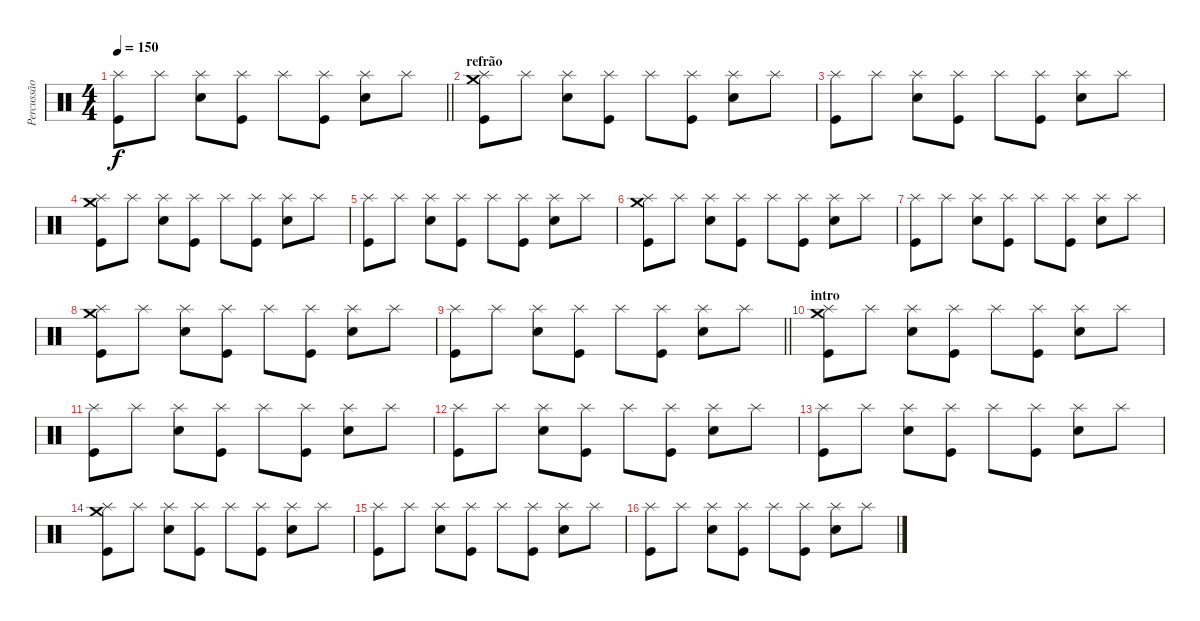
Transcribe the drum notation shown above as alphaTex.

\track ("Percussão" "Percussão") {instrument percussion}
\staff {score}
\articulation defaults
\ts (4 4)
\tempo 150
\clef neutral
\barLineRight lightlight
\ks c
("Splash (hit)" "Kick (hit)").8{dy f} "Splash (hit)".8 ("Splash (hit)" "Electric Snare (hit)").8 ("Splash (hit)" "Kick (hit)").8 "Splash (hit)".8 ("Splash (hit)" "Kick (hit)").8 ("Splash (hit)" "Electric Snare (hit)").8 "Splash (hit)".8 |
\section ("" "refrão")
("Crash medium (hit)" "Splash (hit)" "Kick (hit)").8 "Splash (hit)".8 ("Splash (hit)" "Electric Snare (hit)").8 ("Splash (hit)" "Kick (hit)").8 "Splash (hit)".8 ("Splash (hit)" "Kick (hit)").8 ("Splash (hit)" "Electric Snare (hit)").8 "Splash (hit)".8 |
("Splash (hit)" "Kick (hit)").8 "Splash (hit)".8 ("Splash (hit)" "Electric Snare (hit)").8 ("Splash (hit)" "Kick (hit)").8 "Splash (hit)".8 ("Splash (hit)" "Kick (hit)").8 ("Splash (hit)" "Electric Snare (hit)").8 "Splash (hit)".8 |
("Crash medium (hit)" "Splash (hit)" "Kick (hit)").8 "Splash (hit)".8 ("Splash (hit)" "Electric Snare (hit)").8 ("Splash (hit)" "Kick (hit)").8 "Splash (hit)".8 ("Splash (hit)" "Kick (hit)").8 ("Splash (hit)" "Electric Snare (hit)").8 "Splash (hit)".8 |
("Splash (hit)" "Kick (hit)").8 "Splash (hit)".8 ("Splash (hit)" "Electric Snare (hit)").8 ("Splash (hit)" "Kick (hit)").8 "Splash (hit)".8 ("Splash (hit)" "Kick (hit)").8 ("Splash (hit)" "Electric Snare (hit)").8 "Splash (hit)".8 |
("Crash medium (hit)" "Splash (hit)" "Kick (hit)").8 "Splash (hit)".8 ("Splash (hit)" "Electric Snare (hit)").8 ("Splash (hit)" "Kick (hit)").8 "Splash (hit)".8 ("Splash (hit)" "Kick (hit)").8 ("Splash (hit)" "Electric Snare (hit)").8 "Splash (hit)".8 |
("Splash (hit)" "Kick (hit)").8 "Splash (hit)".8 ("Splash (hit)" "Electric Snare (hit)").8 ("Splash (hit)" "Kick (hit)").8 "Splash (hit)".8 ("Splash (hit)" "Kick (hit)").8 ("Splash (hit)" "Electric Snare (hit)").8 "Splash (hit)".8 |
("Crash medium (hit)" "Splash (hit)" "Kick (hit)").8 "Splash (hit)".8 ("Splash (hit)" "Electric Snare (hit)").8 ("Splash (hit)" "Kick (hit)").8 "Splash (hit)".8 ("Splash (hit)" "Kick (hit)").8 ("Splash (hit)" "Electric Snare (hit)").8 "Splash (hit)".8 |
\barLineRight lightlight
("Splash (hit)" "Kick (hit)").8 "Splash (hit)".8 ("Splash (hit)" "Electric Snare (hit)").8 ("Splash (hit)" "Kick (hit)").8 "Splash (hit)".8 ("Splash (hit)" "Kick (hit)").8 ("Splash (hit)" "Electric Snare (hit)").8 "Splash (hit)".8 |
\section ("" "intro")
("Crash medium (hit)" "Splash (hit)" "Kick (hit)").8 "Splash (hit)".8 ("Splash (hit)" "Electric Snare (hit)").8 ("Splash (hit)" "Kick (hit)").8 "Splash (hit)".8 ("Splash (hit)" "Kick (hit)").8 ("Splash (hit)" "Electric Snare (hit)").8 "Splash (hit)".8 |
("Splash (hit)" "Kick (hit)").8 "Splash (hit)".8 ("Splash (hit)" "Electric Snare (hit)").8 ("Splash (hit)" "Kick (hit)").8 "Splash (hit)".8 ("Splash (hit)" "Kick (hit)").8 ("Splash (hit)" "Electric Snare (hit)").8 "Splash (hit)".8 |
("Splash (hit)" "Kick (hit)").8 "Splash (hit)".8 ("Splash (hit)" "Electric Snare (hit)").8 ("Splash (hit)" "Kick (hit)").8 "Splash (hit)".8 ("Splash (hit)" "Kick (hit)").8 ("Splash (hit)" "Electric Snare (hit)").8 "Splash (hit)".8 |
("Splash (hit)" "Kick (hit)").8 "Splash (hit)".8 ("Splash (hit)" "Electric Snare (hit)").8 ("Splash (hit)" "Kick (hit)").8 "Splash (hit)".8 ("Splash (hit)" "Kick (hit)").8 ("Splash (hit)" "Electric Snare (hit)").8 "Splash (hit)".8 |
("Crash medium (hit)" "Splash (hit)" "Kick (hit)").8 "Splash (hit)".8 ("Splash (hit)" "Electric Snare (hit)").8 ("Splash (hit)" "Kick (hit)").8 "Splash (hit)".8 ("Splash (hit)" "Kick (hit)").8 ("Splash (hit)" "Electric Snare (hit)").8 "Splash (hit)".8 |
("Splash (hit)" "Kick (hit)").8 "Splash (hit)".8 ("Splash (hit)" "Electric Snare (hit)").8 ("Splash (hit)" "Kick (hit)").8 "Splash (hit)".8 ("Splash (hit)" "Kick (hit)").8 ("Splash (hit)" "Electric Snare (hit)").8 "Splash (hit)".8 |
("Splash (hit)" "Kick (hit)").8 "Splash (hit)".8 ("Splash (hit)" "Electric Snare (hit)").8 ("Splash (hit)" "Kick (hit)").8 "Splash (hit)".8 ("Splash (hit)" "Kick (hit)").8 ("Splash (hit)" "Electric Snare (hit)").8 "Splash (hit)".8
